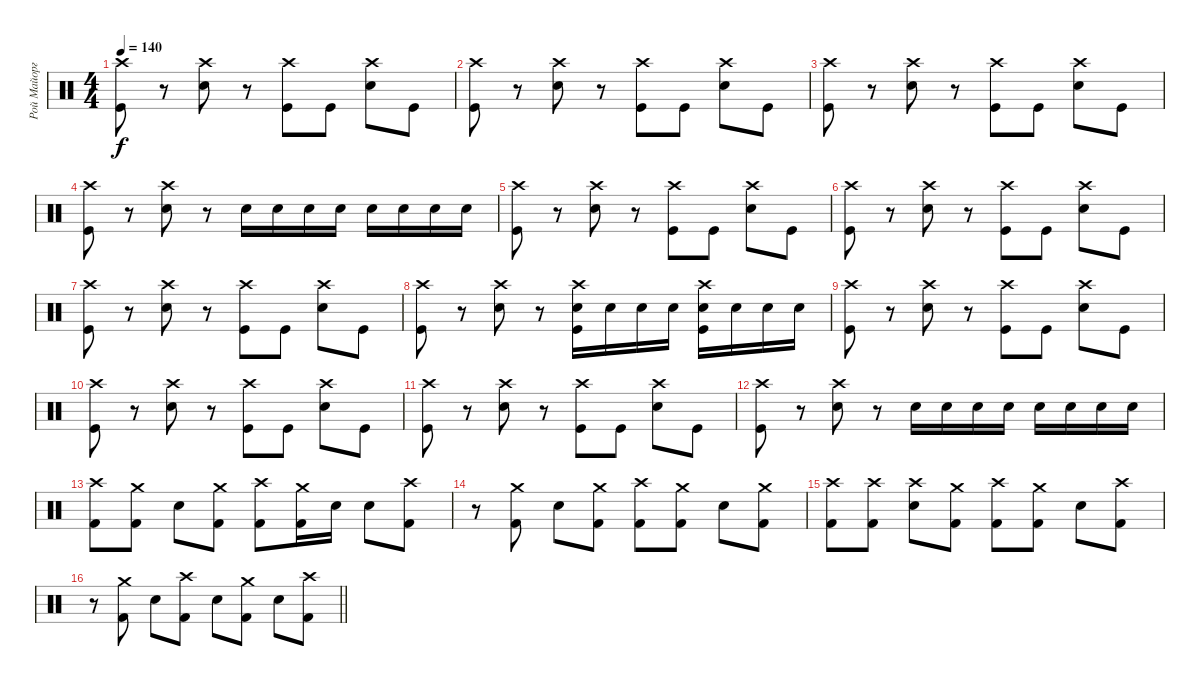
\track ("Рой Майорга" "Рой Майорг") {instrument percussion}
\staff {score}
\articulation defaults
\ts (4 4)
\tempo 140
\clef neutral
\ks c
("Crash high (hit)" "Kick (hit)").8{dy f} r.8 ("Crash high (hit)" "Snare (hit) 2").8 r.8 ("Crash high (hit)" "Kick (hit)").8 "Kick (hit)".8 ("Crash high (hit)" "Snare (hit) 2").8 "Kick (hit)".8 |
("Crash high (hit)" "Kick (hit)").8 r.8 ("Crash high (hit)" "Snare (hit) 2").8 r.8 ("Crash high (hit)" "Kick (hit)").8 "Kick (hit)".8 ("Crash high (hit)" "Snare (hit) 2").8 "Kick (hit)".8 |
("Crash high (hit)" "Kick (hit)").8 r.8 ("Crash high (hit)" "Snare (hit) 2").8 r.8 ("Crash high (hit)" "Kick (hit)").8 "Kick (hit)".8 ("Crash high (hit)" "Snare (hit) 2").8 "Kick (hit)".8 |
("Crash high (hit)" "Kick (hit)").8 r.8 ("Crash high (hit)" "Snare (hit) 2").8 r.8 "Snare (hit) 2".16 "Snare (hit) 2".16 "Snare (hit) 2".16 "Snare (hit) 2".16 "Snare (hit) 2".16 "Snare (hit) 2".16 "Snare (hit) 2".16 "Snare (hit) 2".16 |
("Crash high (hit)" "Kick (hit)").8 r.8 ("Crash high (hit)" "Snare (hit) 2").8 r.8 ("Crash high (hit)" "Kick (hit)").8 "Kick (hit)".8 ("Crash high (hit)" "Snare (hit) 2").8 "Kick (hit)".8 |
("Crash high (hit)" "Kick (hit)").8 r.8 ("Crash high (hit)" "Snare (hit) 2").8 r.8 ("Crash high (hit)" "Kick (hit)").8 "Kick (hit)".8 ("Crash high (hit)" "Snare (hit) 2").8 "Kick (hit)".8 |
("Crash high (hit)" "Kick (hit)").8 r.8 ("Crash high (hit)" "Snare (hit) 2").8 r.8 ("Crash high (hit)" "Kick (hit)").8 "Kick (hit)".8 ("Crash high (hit)" "Snare (hit) 2").8 "Kick (hit)".8 |
("Crash high (hit)" "Kick (hit)").8 r.8 ("Crash high (hit)" "Snare (hit) 2").8 r.8 ("Crash high (hit)" "Snare (hit) 2" "Kick (hit)").16 "Snare (hit) 2".16 "Snare (hit) 2".16 "Snare (hit) 2".16 ("Crash high (hit)" "Snare (hit) 2" "Kick (hit)").16 "Snare (hit) 2".16 "Snare (hit) 2".16 "Snare (hit) 2".16 |
("Crash high (hit)" "Kick (hit)").8 r.8 ("Crash high (hit)" "Snare (hit) 2").8 r.8 ("Crash high (hit)" "Kick (hit)").8 "Kick (hit)".8 ("Crash high (hit)" "Snare (hit) 2").8 "Kick (hit)".8 |
("Crash high (hit)" "Kick (hit)").8 r.8 ("Crash high (hit)" "Snare (hit) 2").8 r.8 ("Crash high (hit)" "Kick (hit)").8 "Kick (hit)".8 ("Crash high (hit)" "Snare (hit) 2").8 "Kick (hit)".8 |
("Crash high (hit)" "Kick (hit)").8 r.8 ("Crash high (hit)" "Snare (hit) 2").8 r.8 ("Crash high (hit)" "Kick (hit)").8 "Kick (hit)".8 ("Crash high (hit)" "Snare (hit) 2").8 "Kick (hit)".8 |
("Crash high (hit)" "Kick (hit)").8 r.8 ("Crash high (hit)" "Snare (hit) 2").8 r.8 "Snare (hit) 2".16 "Snare (hit) 2".16 "Snare (hit) 2".16 "Snare (hit) 2".16 "Snare (hit) 2".16 "Snare (hit) 2".16 "Snare (hit) 2".16 "Snare (hit) 2".16 |
("Crash high (hit)" "Kick (hit) 2").8 ("Crash medium (hit)" "Kick (hit) 2").8 "Snare (hit) 2".8 ("Crash medium (hit)" "Kick (hit) 2").8 ("Crash high (hit)" "Kick (hit) 2").8 ("Crash medium (hit)" "Kick (hit) 2").16 "Snare (hit) 2".16 "Snare (hit) 2".8 ("Crash high (hit)" "Kick (hit) 2").8 |
r.8 ("Crash medium (hit)" "Kick (hit) 2").8 "Snare (hit) 2".8 ("Crash medium (hit)" "Kick (hit) 2").8 ("Crash high (hit)" "Kick (hit) 2").8 ("Crash medium (hit)" "Kick (hit) 2").8 "Snare (hit) 2".8 ("Crash medium (hit)" "Kick (hit) 2").8 |
("Crash high (hit)" "Kick (hit) 2").8 ("Crash high (hit)" "Kick (hit) 2").8 ("Crash high (hit)" "Snare (hit) 2").8 ("Crash medium (hit)" "Kick (hit) 2").8 ("Crash high (hit)" "Kick (hit) 2").8 ("Crash medium (hit)" "Kick (hit) 2").8 "Snare (hit) 2".8 ("Crash high (hit)" "Kick (hit) 2").8 |
\barLineRight lightlight
r.8 ("Crash medium (hit)" "Kick (hit) 2").8 "Snare (hit) 2".8 ("Crash high (hit)" "Kick (hit) 2").8 "Snare (hit) 2".8 ("Crash medium (hit)" "Kick (hit) 2").8 "Snare (hit) 2".8 ("Crash high (hit)" "Kick (hit) 2").8
